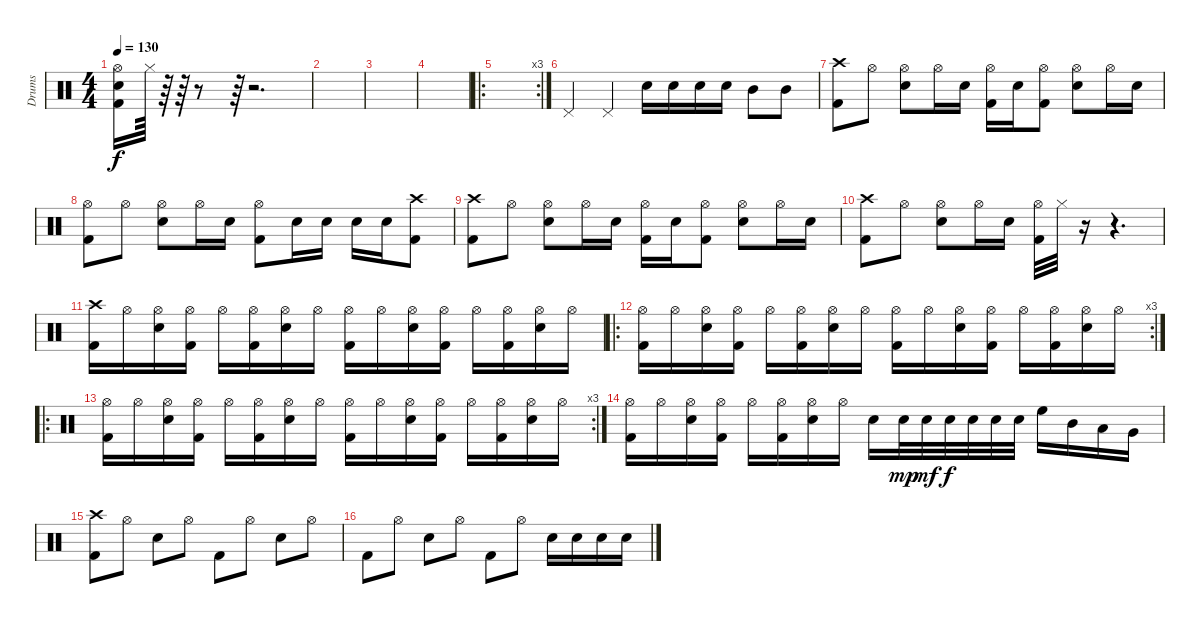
\track ("Drums" "Drums") {instrument percussion}
\staff {score}
\articulation defaults
\ts (4 4)
\tempo 130
\clef neutral
\ks c
("Hi-Hat (open)" "Electric Snare (hit)" "Kick (hit) 2").16{dy f} "Hi-Hat (closed)".64 r.64 r.64 r.8 r.64 r.2{d} |
|
|
|
\ro
\rc 3
|
"Pedal Hi-Hat (hit)".4 "Pedal Hi-Hat (hit)".4 "Electric Snare (hit)".16 "Electric Snare (hit)".16 "Electric Snare (hit)".16 "Electric Snare (hit)".16 "Mid Tom (hit)".8 "Mid Tom (hit)".8 |
("Crash high (hit)" "Kick (hit) 2").8 "Hi-Hat (open)".8 ("Hi-Hat (open)" "Electric Snare (hit)").8 "Hi-Hat (open)".16 "Electric Snare (hit)".16 ("Hi-Hat (open)" "Kick (hit) 2").16 "Electric Snare (hit)".16 ("Hi-Hat (open)" "Kick (hit) 2").8 ("Hi-Hat (open)" "Electric Snare (hit)").8 "Hi-Hat (open)".16 "Electric Snare (hit)".16 |
("Hi-Hat (open)" "Kick (hit) 2").8 "Hi-Hat (open)".8 ("Hi-Hat (open)" "Electric Snare (hit)").8 "Hi-Hat (open)".16 "Electric Snare (hit)".16 ("Hi-Hat (open)" "Kick (hit) 2").8 "Electric Snare (hit)".16 "Electric Snare (hit)".16 "Electric Snare (hit)".16 "Electric Snare (hit)".16 ("Crash high (hit)" "Kick (hit) 2").8 |
("Crash high (hit)" "Kick (hit) 2").8 "Hi-Hat (open)".8 ("Hi-Hat (open)" "Electric Snare (hit)").8 "Hi-Hat (open)".16 "Electric Snare (hit)".16 ("Hi-Hat (open)" "Kick (hit) 2").16 "Electric Snare (hit)".16 ("Hi-Hat (open)" "Kick (hit) 2").8 ("Hi-Hat (open)" "Electric Snare (hit)").8 "Hi-Hat (open)".16 "Electric Snare (hit)".16 |
("Crash high (hit)" "Kick (hit) 2").8 "Hi-Hat (open)".8 ("Hi-Hat (open)" "Electric Snare (hit)").8 "Hi-Hat (open)".16 "Electric Snare (hit)".16 ("Hi-Hat (open)" "Kick (hit) 2").32 "Hi-Hat (closed)".32 r.16 r.4{d} |
("Crash high (hit)" "Kick (hit) 2").16 "Hi-Hat (open)".16 ("Hi-Hat (open)" "Electric Snare (hit)").16 ("Hi-Hat (open)" "Kick (hit) 2").16 "Hi-Hat (open)".16 ("Hi-Hat (open)" "Kick (hit) 2").16 ("Hi-Hat (open)" "Electric Snare (hit)").16 "Hi-Hat (open)".16 ("Hi-Hat (open)" "Kick (hit) 2").16 "Hi-Hat (open)".16 ("Hi-Hat (open)" "Electric Snare (hit)").16 ("Hi-Hat (open)" "Kick (hit) 2").16 "Hi-Hat (open)".16 ("Hi-Hat (open)" "Kick (hit) 2").16 ("Hi-Hat (open)" "Electric Snare (hit)").16 "Hi-Hat (open)".16 |
\ro
\rc 3
("Hi-Hat (open)" "Kick (hit) 2").16 "Hi-Hat (open)".16 ("Hi-Hat (open)" "Electric Snare (hit)").16 ("Hi-Hat (open)" "Kick (hit) 2").16 "Hi-Hat (open)".16 ("Hi-Hat (open)" "Kick (hit) 2").16 ("Hi-Hat (open)" "Electric Snare (hit)").16 "Hi-Hat (open)".16 ("Hi-Hat (open)" "Kick (hit) 2").16 "Hi-Hat (open)".16 ("Hi-Hat (open)" "Electric Snare (hit)").16 ("Hi-Hat (open)" "Kick (hit) 2").16 "Hi-Hat (open)".16 ("Hi-Hat (open)" "Kick (hit) 2").16 ("Hi-Hat (open)" "Electric Snare (hit)").16 "Hi-Hat (open)".16 |
\ro
\rc 3
("Hi-Hat (open)" "Kick (hit) 2").16 "Hi-Hat (open)".16 ("Hi-Hat (open)" "Electric Snare (hit)").16 ("Hi-Hat (open)" "Kick (hit) 2").16 "Hi-Hat (open)".16 ("Hi-Hat (open)" "Kick (hit) 2").16 ("Hi-Hat (open)" "Electric Snare (hit)").16 "Hi-Hat (open)".16 ("Hi-Hat (open)" "Kick (hit) 2").16 "Hi-Hat (open)".16 ("Hi-Hat (open)" "Electric Snare (hit)").16 ("Hi-Hat (open)" "Kick (hit) 2").16 "Hi-Hat (open)".16 ("Hi-Hat (open)" "Kick (hit) 2").16 ("Hi-Hat (open)" "Electric Snare (hit)").16 "Hi-Hat (open)".16 |
("Hi-Hat (open)" "Kick (hit) 2").16 "Hi-Hat (open)".16 ("Hi-Hat (open)" "Electric Snare (hit)").16 ("Hi-Hat (open)" "Kick (hit) 2").16 "Hi-Hat (open)".16 ("Hi-Hat (open)" "Kick (hit) 2").16 ("Hi-Hat (open)" "Electric Snare (hit)").16 "Hi-Hat (open)".16 "Electric Snare (hit)".16 "Electric Snare (hit)".32{dy mp} "Electric Snare (hit)".32{dy mf} "Electric Snare (hit)".32{dy f} "Electric Snare (hit)".32 "Electric Snare (hit)".32 "Electric Snare (hit)".32 "High Floor Tom (hit)".16 "Mid Tom (hit)".16 "Low Tom (hit)".16 "Very Low Tom (hit)".16 |
("Crash high (hit)" "Kick (hit) 2").8 "Hi-Hat (open)".8 "Electric Snare (hit)".8 "Hi-Hat (open)".8 "Kick (hit) 2".8 "Hi-Hat (open)".8 "Electric Snare (hit)".8 "Hi-Hat (open)".8 |
"Kick (hit) 2".8 "Hi-Hat (open)".8 "Electric Snare (hit)".8 "Hi-Hat (open)".8 "Kick (hit) 2".8 "Hi-Hat (open)".8 "Electric Snare (hit)".16 "Electric Snare (hit)".16 "Electric Snare (hit)".16 "Electric Snare (hit)".16
